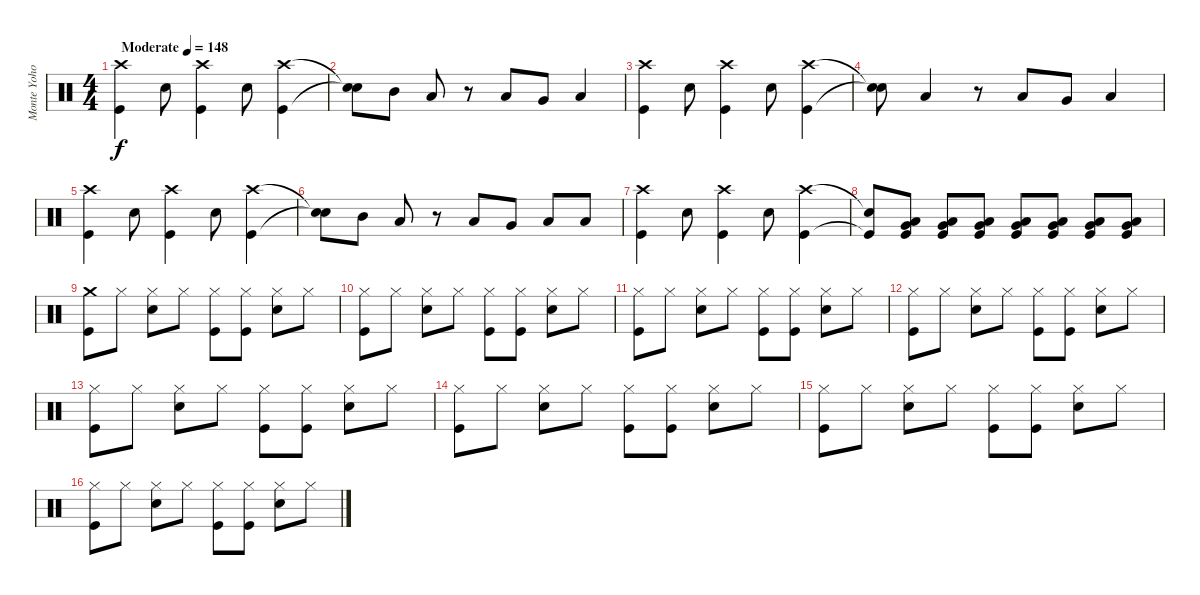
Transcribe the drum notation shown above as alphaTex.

\track ("Monte Yoho Drums" "Monte Yoho") {instrument percussion}
\staff {score}
\articulation defaults
\ts (4 4)
\tempo (148 "Moderate")
\clef neutral
\ks c
("Crash high (hit)" "Kick (hit)").4{dy f} "Snare (hit) 2".8 ("Crash high (hit)" "Kick (hit)").4 "Snare (hit) 2".8 ("Crash high (hit)" "Kick (hit)").4 |
("Snare (hit)"{t} "Snare (hit)"{t}).8 "Mid Tom (hit)".8 "Low Tom (hit)".8 r.8 "Low Tom (hit)".8 "Very Low Tom (hit)".8 "Low Floor Tom (hit)".4 |
("Crash high (hit)" "Kick (hit)").4 "Snare (hit) 2".8 ("Crash high (hit)" "Kick (hit)").4 "Snare (hit) 2".8 ("Crash high (hit)" "Kick (hit)").4 |
("Snare (hit)"{t} "Snare (hit)"{t}).8 "Low Tom (hit)".4 r.8 "Low Tom (hit)".8 "Very Low Tom (hit)".8 "Low Floor Tom (hit)".4 |
("Crash high (hit)" "Kick (hit)").4 "Snare (hit) 2".8 ("Crash high (hit)" "Kick (hit)").4 "Snare (hit) 2".8 ("Crash high (hit)" "Kick (hit)").4 |
("Snare (hit)"{t} "Snare (hit)"{t}).8 "Mid Tom (hit)".8 "Low Tom (hit)".8 r.8 "Low Tom (hit)".8 "Very Low Tom (hit)".8 "Low Floor Tom (hit)".8 "Low Floor Tom (hit)".8 |
("Crash high (hit)" "Kick (hit)").4 "Snare (hit) 2".8 ("Crash high (hit)" "Kick (hit)").4 "Snare (hit) 2".8 ("Crash high (hit)" "Kick (hit)").4 |
("Snare (hit)"{t} "Kick (hit)"{t}).8 ("Low Tom (hit)" "Very Low Tom (hit)" "Kick (hit)").8 ("Low Tom (hit)" "Very Low Tom (hit)" "Kick (hit)").8 ("Low Tom (hit)" "Very Low Tom (hit)" "Kick (hit)").8 ("Low Tom (hit)" "Very Low Tom (hit)" "Kick (hit)").8 ("Low Tom (hit)" "Very Low Tom (hit)" "Kick (hit)").8 ("Low Tom (hit)" "Very Low Tom (hit)" "Kick (hit)").8 ("Low Tom (hit)" "Very Low Tom (hit)" "Kick (hit)").8 |
("Crash medium (hit)" "Kick (hit)").8 "Hi-Hat (closed)".8 ("Hi-Hat (closed)" "Snare (hit) 2").8 "Hi-Hat (closed)".8 ("Hi-Hat (closed)" "Kick (hit)").8 ("Hi-Hat (closed)" "Kick (hit)").8 ("Hi-Hat (closed)" "Snare (hit) 2").8 "Hi-Hat (closed)".8 |
("Hi-Hat (closed)" "Kick (hit)").8 "Hi-Hat (closed)".8 ("Hi-Hat (closed)" "Snare (hit) 2").8 "Hi-Hat (closed)".8 ("Hi-Hat (closed)" "Kick (hit)").8 ("Hi-Hat (closed)" "Kick (hit)").8 ("Hi-Hat (closed)" "Snare (hit) 2").8 "Hi-Hat (closed)".8 |
("Hi-Hat (closed)" "Kick (hit)").8 "Hi-Hat (closed)".8 ("Hi-Hat (closed)" "Snare (hit) 2").8 "Hi-Hat (closed)".8 ("Hi-Hat (closed)" "Kick (hit)").8 ("Hi-Hat (closed)" "Kick (hit)").8 ("Hi-Hat (closed)" "Snare (hit) 2").8 "Hi-Hat (closed)".8 |
("Hi-Hat (closed)" "Kick (hit)").8 "Hi-Hat (closed)".8 ("Hi-Hat (closed)" "Snare (hit) 2").8 "Hi-Hat (closed)".8 ("Hi-Hat (closed)" "Kick (hit)").8 ("Hi-Hat (closed)" "Kick (hit)").8 ("Hi-Hat (closed)" "Snare (hit) 2").8 "Hi-Hat (closed)".8 |
("Hi-Hat (closed)" "Kick (hit)").8 "Hi-Hat (closed)".8 ("Hi-Hat (closed)" "Snare (hit) 2").8 "Hi-Hat (closed)".8 ("Hi-Hat (closed)" "Kick (hit)").8 ("Hi-Hat (closed)" "Kick (hit)").8 ("Hi-Hat (closed)" "Snare (hit) 2").8 "Hi-Hat (closed)".8 |
("Hi-Hat (closed)" "Kick (hit)").8 "Hi-Hat (closed)".8 ("Hi-Hat (closed)" "Snare (hit) 2").8 "Hi-Hat (closed)".8 ("Hi-Hat (closed)" "Kick (hit)").8 ("Hi-Hat (closed)" "Kick (hit)").8 ("Hi-Hat (closed)" "Snare (hit) 2").8 "Hi-Hat (closed)".8 |
("Hi-Hat (closed)" "Kick (hit)").8 "Hi-Hat (closed)".8 ("Hi-Hat (closed)" "Snare (hit) 2").8 "Hi-Hat (closed)".8 ("Hi-Hat (closed)" "Kick (hit)").8 ("Hi-Hat (closed)" "Kick (hit)").8 ("Hi-Hat (closed)" "Snare (hit) 2").8 "Hi-Hat (closed)".8 |
("Hi-Hat (closed)" "Kick (hit)").8 "Hi-Hat (closed)".8 ("Hi-Hat (closed)" "Snare (hit) 2").8 "Hi-Hat (closed)".8 ("Hi-Hat (closed)" "Kick (hit)").8 ("Hi-Hat (closed)" "Kick (hit)").8 ("Hi-Hat (closed)" "Snare (hit) 2").8 "Hi-Hat (closed)".8
